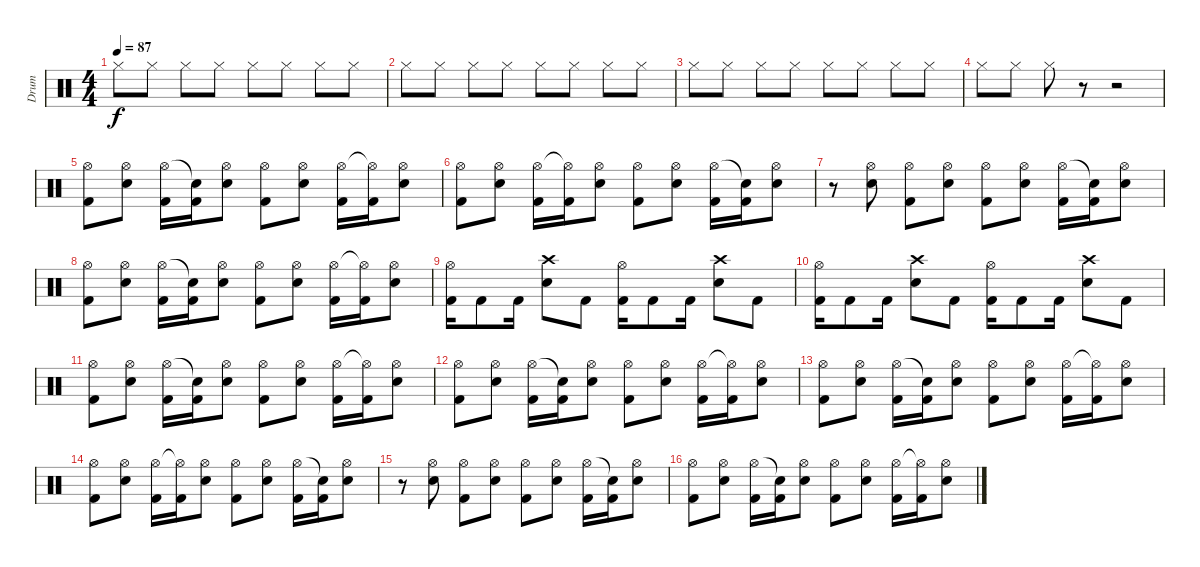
\track ("Drum" "Drum") {instrument percussion}
\staff {score}
\articulation defaults
\ts (4 4)
\tempo 87
\clef neutral
\ks c "Hi-Hat (closed)".8{dy f} "Hi-Hat (closed)".8 "Hi-Hat (closed)".8 "Hi-Hat (closed)".8 "Hi-Hat (closed)".8 "Hi-Hat (closed)".8 "Hi-Hat (closed)".8 "Hi-Hat (closed)".8
|
"Hi-Hat (closed)".8 "Hi-Hat (closed)".8 "Hi-Hat (closed)".8 "Hi-Hat (closed)".8 "Hi-Hat (closed)".8 "Hi-Hat (closed)".8 "Hi-Hat (closed)".8 "Hi-Hat (closed)".8 |
"Hi-Hat (closed)".8 "Hi-Hat (closed)".8 "Hi-Hat (closed)".8 "Hi-Hat (closed)".8 "Hi-Hat (closed)".8 "Hi-Hat (closed)".8 "Hi-Hat (closed)".8 "Hi-Hat (closed)".8 |
"Hi-Hat (closed)".8 "Hi-Hat (closed)".8 "Hi-Hat (closed)".8 r.8 r.2 |
("Hi-Hat (open)" "Kick (hit) 2").8 ("Hi-Hat (open)" "Electric Snare (hit)").8 ("Hi-Hat (open)" "Kick (hit) 2").16 ("Snare (hit)"{t} "Kick (hit) 2").16 ("Hi-Hat (open)" "Electric Snare (hit)").8 ("Hi-Hat (open)" "Kick (hit) 2").8 ("Hi-Hat (open)" "Electric Snare (hit)").8 ("Hi-Hat (open)" "Kick (hit) 2").16 ("Hi-Hat (open)"{t} "Kick (hit) 2").16 ("Hi-Hat (open)" "Electric Snare (hit)").8 |
("Hi-Hat (open)" "Kick (hit) 2").8 ("Hi-Hat (open)" "Electric Snare (hit)").8 ("Hi-Hat (open)" "Kick (hit) 2").16 ("Hi-Hat (open)"{t} "Kick (hit) 2").16 ("Hi-Hat (open)" "Electric Snare (hit)").8 ("Hi-Hat (open)" "Kick (hit) 2").8 ("Hi-Hat (open)" "Electric Snare (hit)").8 ("Hi-Hat (open)" "Kick (hit) 2").16 ("Snare (hit)"{t} "Kick (hit) 2").16 ("Hi-Hat (open)" "Electric Snare (hit)").8 |
r.8 ("Hi-Hat (open)" "Electric Snare (hit)").8 ("Hi-Hat (open)" "Kick (hit) 2").8 ("Hi-Hat (open)" "Electric Snare (hit)").8 ("Hi-Hat (open)" "Kick (hit) 2").8 ("Hi-Hat (open)" "Electric Snare (hit)").8 ("Hi-Hat (open)" "Kick (hit) 2").16 ("Snare (hit)"{t} "Kick (hit) 2").16 ("Hi-Hat (open)" "Electric Snare (hit)").8 |
("Hi-Hat (open)" "Kick (hit) 2").8 ("Hi-Hat (open)" "Electric Snare (hit)").8 ("Hi-Hat (open)" "Kick (hit) 2").16 ("Snare (hit)"{t} "Kick (hit) 2").16 ("Hi-Hat (open)" "Electric Snare (hit)").8 ("Hi-Hat (open)" "Kick (hit) 2").8 ("Hi-Hat (open)" "Electric Snare (hit)").8 ("Hi-Hat (open)" "Kick (hit) 2").16 ("Hi-Hat (open)"{t} "Kick (hit) 2").16 ("Hi-Hat (open)" "Electric Snare (hit)").8 |
("Hi-Hat (open)" "Kick (hit) 2").16 "Kick (hit) 2".8 "Kick (hit) 2".16 ("Crash high (hit)" "Electric Snare (hit)").8 "Kick (hit) 2".8 ("Hi-Hat (open)" "Kick (hit) 2").16 "Kick (hit) 2".8 "Kick (hit) 2".16 ("Crash high (hit)" "Electric Snare (hit)").8 "Kick (hit) 2".8 |
("Hi-Hat (open)" "Kick (hit) 2").16 "Kick (hit) 2".8 "Kick (hit) 2".16 ("Crash high (hit)" "Electric Snare (hit)").8 "Kick (hit) 2".8 ("Hi-Hat (open)" "Kick (hit) 2").16 "Kick (hit) 2".8 "Kick (hit) 2".16 ("Crash high (hit)" "Electric Snare (hit)").8 "Kick (hit) 2".8 |
("Hi-Hat (open)" "Kick (hit) 2").8 ("Hi-Hat (open)" "Electric Snare (hit)").8 ("Hi-Hat (open)" "Kick (hit) 2").16 ("Snare (hit)"{t} "Kick (hit) 2").16 ("Hi-Hat (open)" "Electric Snare (hit)").8 ("Hi-Hat (open)" "Kick (hit) 2").8 ("Hi-Hat (open)" "Electric Snare (hit)").8 ("Hi-Hat (open)" "Kick (hit) 2").16 ("Hi-Hat (open)"{t} "Kick (hit) 2").16 ("Hi-Hat (open)" "Electric Snare (hit)").8 |
("Hi-Hat (open)" "Kick (hit) 2").8 ("Hi-Hat (open)" "Electric Snare (hit)").8 ("Hi-Hat (open)" "Kick (hit) 2").16 ("Snare (hit)"{t} "Kick (hit) 2").16 ("Hi-Hat (open)" "Electric Snare (hit)").8 ("Hi-Hat (open)" "Kick (hit) 2").8 ("Hi-Hat (open)" "Electric Snare (hit)").8 ("Hi-Hat (open)" "Kick (hit) 2").16 ("Hi-Hat (open)"{t} "Kick (hit) 2").16 ("Hi-Hat (open)" "Electric Snare (hit)").8 |
("Hi-Hat (open)" "Kick (hit) 2").8 ("Hi-Hat (open)" "Electric Snare (hit)").8 ("Hi-Hat (open)" "Kick (hit) 2").16 ("Snare (hit)"{t} "Kick (hit) 2").16 ("Hi-Hat (open)" "Electric Snare (hit)").8 ("Hi-Hat (open)" "Kick (hit) 2").8 ("Hi-Hat (open)" "Electric Snare (hit)").8 ("Hi-Hat (open)" "Kick (hit) 2").16 ("Hi-Hat (open)"{t} "Kick (hit) 2").16 ("Hi-Hat (open)" "Electric Snare (hit)").8 |
("Hi-Hat (open)" "Kick (hit) 2").8 ("Hi-Hat (open)" "Electric Snare (hit)").8 ("Hi-Hat (open)" "Kick (hit) 2").16 ("Hi-Hat (open)"{t} "Kick (hit) 2").16 ("Hi-Hat (open)" "Electric Snare (hit)").8 ("Hi-Hat (open)" "Kick (hit) 2").8 ("Hi-Hat (open)" "Electric Snare (hit)").8 ("Hi-Hat (open)" "Kick (hit) 2").16 ("Snare (hit)"{t} "Kick (hit) 2").16 ("Hi-Hat (open)" "Electric Snare (hit)").8 |
r.8 ("Hi-Hat (open)" "Electric Snare (hit)").8 ("Hi-Hat (open)" "Kick (hit) 2").8 ("Hi-Hat (open)" "Electric Snare (hit)").8 ("Hi-Hat (open)" "Kick (hit) 2").8 ("Hi-Hat (open)" "Electric Snare (hit)").8 ("Hi-Hat (open)" "Kick (hit) 2").16 ("Snare (hit)"{t} "Kick (hit) 2").16 ("Hi-Hat (open)" "Electric Snare (hit)").8 |
("Hi-Hat (open)" "Kick (hit) 2").8 ("Hi-Hat (open)" "Electric Snare (hit)").8 ("Hi-Hat (open)" "Kick (hit) 2").16 ("Snare (hit)"{t} "Kick (hit) 2").16 ("Hi-Hat (open)" "Electric Snare (hit)").8 ("Hi-Hat (open)" "Kick (hit) 2").8 ("Hi-Hat (open)" "Electric Snare (hit)").8 ("Hi-Hat (open)" "Kick (hit) 2").16 ("Hi-Hat (open)"{t} "Kick (hit) 2").16 ("Hi-Hat (open)" "Electric Snare (hit)").8
